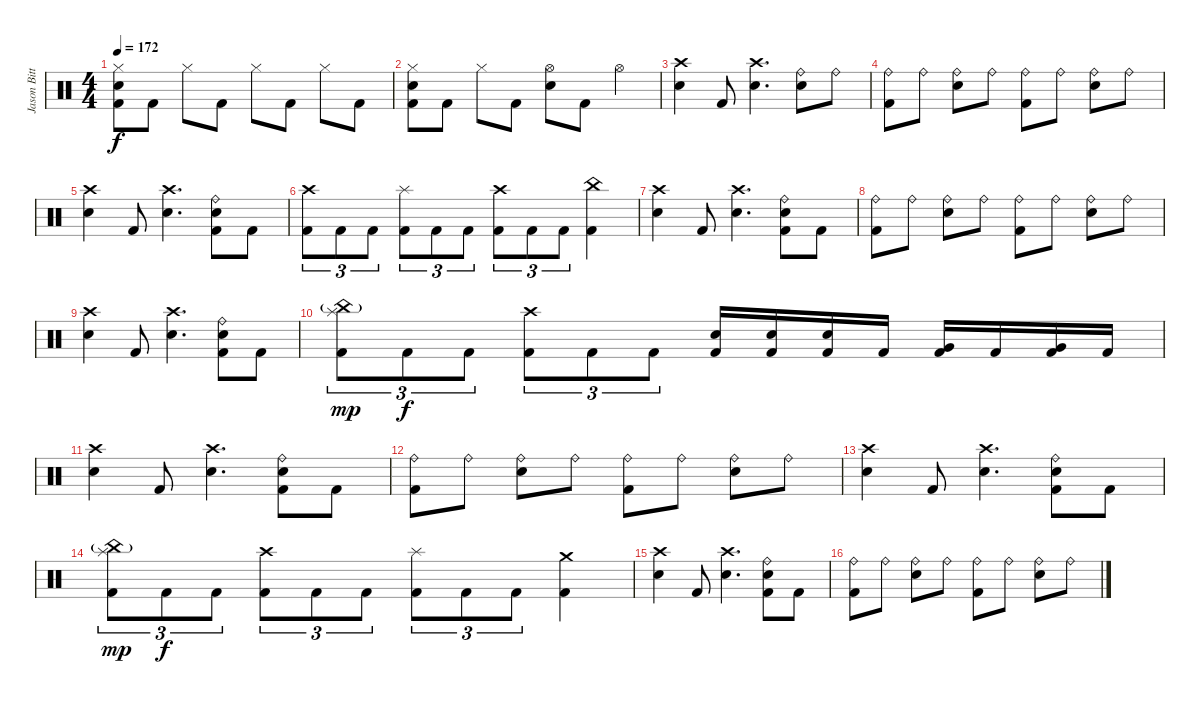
\track ("Jason Bittner" "Jason Bitt") {instrument percussion}
\staff {score}
\articulation defaults
\ts (4 4)
\tempo 172
\clef neutral
\ks c
("Hi-Hat (closed)" "Electric Snare (hit)" "Kick (hit) 2").8{dy f} "Kick (hit) 2".8 "Hi-Hat (closed)".8 "Kick (hit) 2".8 "Hi-Hat (closed)".8 "Kick (hit) 2".8 "Hi-Hat (closed)".8 "Kick (hit) 2".8 |
("Hi-Hat (closed)" "Electric Snare (hit)" "Kick (hit) 2").8 "Kick (hit) 2".8 "Hi-Hat (closed)".8 "Kick (hit) 2".8 ("Hi-Hat (open)" "Electric Snare (hit)").8 "Kick (hit) 2".8 "Hi-Hat (open)".4 |
("Crash high (hit)" "Electric Snare (hit)").4 "Kick (hit) 2".8 ("Crash high (hit)" "Electric Snare (hit)").4{d} ("Ride (bell)" "Electric Snare (hit)").8 "Ride (bell)".8 |
("Ride (bell)" "Kick (hit) 2").8 "Ride (bell)".8 ("Ride (bell)" "Electric Snare (hit)").8 "Ride (bell)".8 ("Ride (bell)" "Kick (hit) 2").8 "Ride (bell)".8 ("Ride (bell)" "Electric Snare (hit)").8 "Ride (bell)".8 |
("Crash high (hit)" "Electric Snare (hit)").4 "Kick (hit) 2".8 ("Crash high (hit)" "Electric Snare (hit)").4{d} ("Ride (bell)" "Electric Snare (hit)" "Kick (hit) 2").8 "Kick (hit) 2".8 |
("Crash high (hit)" "Kick (hit) 2").8{tu (3 2)} "Kick (hit) 2".8{tu (3 2)} "Kick (hit) 2".8{tu (3 2)} ("Splash (hit)" "Kick (hit) 2").8{tu (3 2)} "Kick (hit) 2".8{tu (3 2)} "Kick (hit) 2".8{tu (3 2)} ("Crash high (hit)" "Kick (hit) 2").8{tu (3 2)} "Kick (hit) 2".8{tu (3 2)} "Kick (hit) 2".8{tu (3 2)} ("China (hit)" "Kick (hit) 2").4 |
("Crash high (hit)" "Electric Snare (hit)").4 "Kick (hit) 2".8 ("Crash high (hit)" "Electric Snare (hit)").4{d} ("Ride (bell)" "Electric Snare (hit)" "Kick (hit) 2").8 "Kick (hit) 2".8 |
("Ride (bell)" "Kick (hit) 2").8 "Ride (bell)".8 ("Ride (bell)" "Electric Snare (hit)").8 "Ride (bell)".8 ("Ride (bell)" "Kick (hit) 2").8 "Ride (bell)".8 ("Ride (bell)" "Electric Snare (hit)").8 "Ride (bell)".8 |
("Crash high (hit)" "Electric Snare (hit)").4 "Kick (hit) 2".8 ("Crash high (hit)" "Electric Snare (hit)").4{d} ("Ride (bell)" "Electric Snare (hit)" "Kick (hit) 2").8 "Kick (hit) 2".8 |
("Splash (hit)" "China (hit)"{g} "Kick (hit) 2").8{tu (3 2) dy mp} "Kick (hit) 2".8{tu (3 2) dy f} "Kick (hit) 2".8{tu (3 2)} ("Crash high (hit)" "Kick (hit) 2").8{tu (3 2)} "Kick (hit) 2".8{tu (3 2)} "Kick (hit) 2".8{tu (3 2)} ("Electric Snare (hit)" "Kick (hit) 2").16 ("Electric Snare (hit)" "Kick (hit) 2").16 ("Electric Snare (hit)" "Kick (hit) 2").16 "Kick (hit) 2".16 ("Very Low Tom (hit)" "Kick (hit) 2").16 "Kick (hit) 2".16 ("Very Low Tom (hit)" "Kick (hit) 2").16 "Kick (hit) 2".16 |
("Crash high (hit)" "Electric Snare (hit)").4 "Kick (hit) 2".8 ("Crash high (hit)" "Electric Snare (hit)").4{d} ("Ride (bell)" "Electric Snare (hit)" "Kick (hit) 2").8 "Kick (hit) 2".8 |
("Ride (bell)" "Kick (hit) 2").8 "Ride (bell)".8 ("Ride (bell)" "Electric Snare (hit)").8 "Ride (bell)".8 ("Ride (bell)" "Kick (hit) 2").8 "Ride (bell)".8 ("Ride (bell)" "Electric Snare (hit)").8 "Ride (bell)".8 |
("Crash high (hit)" "Electric Snare (hit)").4 "Kick (hit) 2".8 ("Crash high (hit)" "Electric Snare (hit)").4{d} ("Ride (bell)" "Electric Snare (hit)" "Kick (hit) 2").8 "Kick (hit) 2".8 |
("Splash (hit)" "China (hit)"{g} "Kick (hit) 2").8{tu (3 2) dy mp} "Kick (hit) 2".8{tu (3 2) dy f} "Kick (hit) 2".8{tu (3 2)} ("Crash high (hit)" "Kick (hit) 2").8{tu (3 2)} "Kick (hit) 2".8{tu (3 2)} "Kick (hit) 2".8{tu (3 2)} ("Splash (hit)" "Kick (hit) 2").8{tu (3 2)} "Kick (hit) 2".8{tu (3 2)} "Kick (hit) 2".8{tu (3 2)} ("Crash medium (hit)" "Kick (hit) 2").4 |
("Crash high (hit)" "Electric Snare (hit)").4 "Kick (hit) 2".8 ("Crash high (hit)" "Electric Snare (hit)").4{d} ("Ride (bell)" "Electric Snare (hit)" "Kick (hit) 2").8 "Kick (hit) 2".8 |
("Ride (bell)" "Kick (hit) 2").8 "Ride (bell)".8 ("Ride (bell)" "Electric Snare (hit)").8 "Ride (bell)".8 ("Ride (bell)" "Kick (hit) 2").8 "Ride (bell)".8 ("Ride (bell)" "Electric Snare (hit)").8 "Ride (bell)".8
